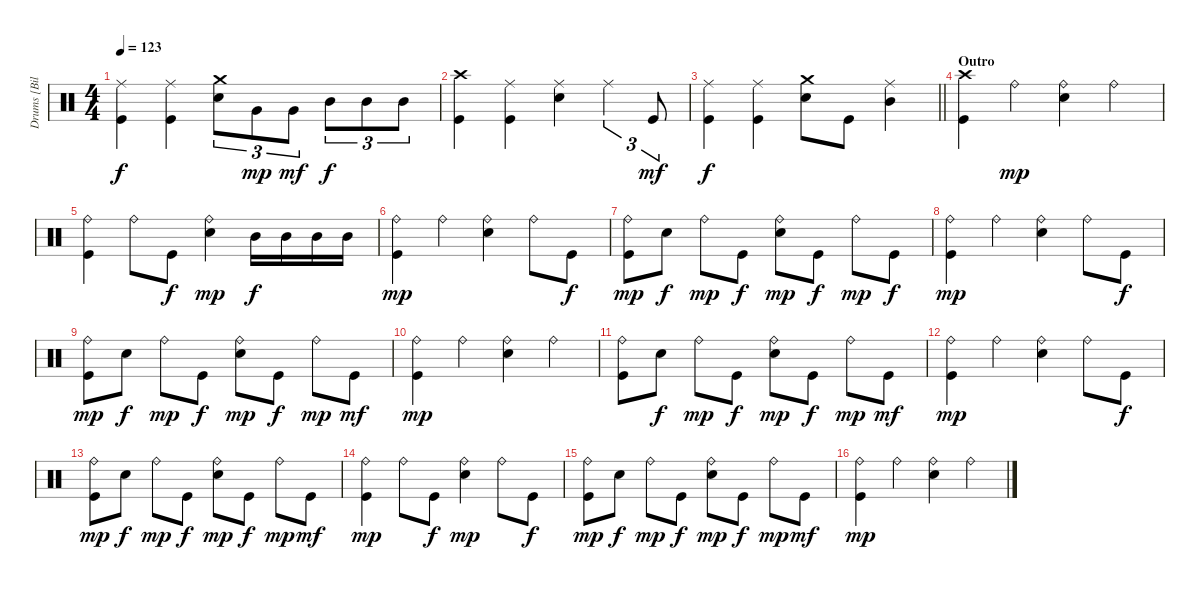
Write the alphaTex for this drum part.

\track ("Drums [Bill Ward]" "Drums [Bil") {instrument percussion}
\staff {score}
\articulation defaults
\ts (4 4)
\tempo 123
\clef neutral
\ks c
("Ride (middle)" "Kick (hit)").4{dy f} ("Ride (middle)" "Kick (hit)").4 ("Crash medium (hit)" "Electric Snare (hit)").8{tu (3 2)} "Very Low Tom (hit)".8{tu (3 2) dy mp} "Very Low Tom (hit)".8{tu (3 2) dy mf} "Mid Tom (hit)".8{tu (3 2) dy f} "Mid Tom (hit)".8{tu (3 2)} "Mid Tom (hit)".8{tu (3 2)} |
("Crash high (hit)" "Kick (hit)").4 ("Ride (middle)" "Kick (hit)").4 ("Ride (middle)" "Electric Snare (hit)").4 "Ride (middle)".4{tu (3 2)} "Kick (hit)".8{tu (3 2) dy mf} |
\barLineRight lightlight
("Ride (middle)" "Kick (hit)").4{dy f} ("Ride (middle)" "Kick (hit)").4 ("Crash medium (hit)" "Electric Snare (hit)").8 "Kick (hit)".8 ("Mid Tom (hit)" "Ride (middle)").4 |
\section ("" "Outro")
("Crash high (hit)" "Kick (hit)").4 "Ride (bell)".4{dy mp} ("Ride (bell)" "Electric Snare (hit)").4 "Ride (bell)".4 |
("Ride (bell)" "Kick (hit)").4 "Ride (bell)".8 "Kick (hit)".8{dy f} ("Ride (bell)" "Electric Snare (hit)").4{dy mp} "Mid Tom (hit)".16{dy f} "Mid Tom (hit)".16 "Mid Tom (hit)".16 "Mid Tom (hit)".16 |
("Ride (bell)" "Kick (hit)").4{dy mp} "Ride (bell)".4 ("Ride (bell)" "Electric Snare (hit)").4 "Ride (bell)".8 "Kick (hit)".8{dy f} |
("Ride (bell)" "Kick (hit)").8{dy mp} "Electric Snare (hit)".8{dy f} "Ride (bell)".8{dy mp} "Kick (hit)".8{dy f} ("Ride (bell)" "Electric Snare (hit)").8{dy mp} "Kick (hit)".8{dy f} "Ride (bell)".8{dy mp} "Kick (hit)".8{dy f} |
("Ride (bell)" "Kick (hit)").4{dy mp} "Ride (bell)".4 ("Ride (bell)" "Electric Snare (hit)").4 "Ride (bell)".8 "Kick (hit)".8{dy f} |
("Ride (bell)" "Kick (hit)").8{dy mp} "Electric Snare (hit)".8{dy f} "Ride (bell)".8{dy mp} "Kick (hit)".8{dy f} ("Ride (bell)" "Electric Snare (hit)").8{dy mp} "Kick (hit)".8{dy f} "Ride (bell)".8{dy mp} "Kick (hit)".8{dy mf} |
("Ride (bell)" "Kick (hit)").4{dy mp} "Ride (bell)".4 ("Ride (bell)" "Electric Snare (hit)").4 "Ride (bell)".4 |
("Ride (bell)" "Kick (hit)").8{volume 12} "Electric Snare (hit)".8{dy f} "Ride (bell)".8{dy mp} "Kick (hit)".8{dy f} ("Ride (bell)" "Electric Snare (hit)").8{dy mp} "Kick (hit)".8{dy f} "Ride (bell)".8{dy mp} "Kick (hit)".8{dy mf} |
("Ride (bell)" "Kick (hit)").4{dy mp} "Ride (bell)".4 ("Ride (bell)" "Electric Snare (hit)").4 "Ride (bell)".8 "Kick (hit)".8{dy f} |
("Ride (bell)" "Kick (hit)").8{dy mp} "Electric Snare (hit)".8{dy f} "Ride (bell)".8{dy mp} "Kick (hit)".8{dy f} ("Ride (bell)" "Electric Snare (hit)").8{dy mp} "Kick (hit)".8{dy f} "Ride (bell)".8{dy mp} "Kick (hit)".8{dy mf} |
("Ride (bell)" "Kick (hit)").4{dy mp} "Ride (bell)".8 "Kick (hit)".8{dy f} ("Ride (bell)" "Electric Snare (hit)").4{dy mp} "Ride (bell)".8 "Kick (hit)".8{dy f} |
("Ride (bell)" "Kick (hit)").8{dy mp volume 6} "Electric Snare (hit)".8{dy f} "Ride (bell)".8{dy mp} "Kick (hit)".8{dy f} ("Ride (bell)" "Electric Snare (hit)").8{dy mp} "Kick (hit)".8{dy f} "Ride (bell)".8{dy mp} "Kick (hit)".8{dy mf} |
("Ride (bell)" "Kick (hit)").4{dy mp} "Ride (bell)".4 ("Ride (bell)" "Electric Snare (hit)").4 "Ride (bell)".4
